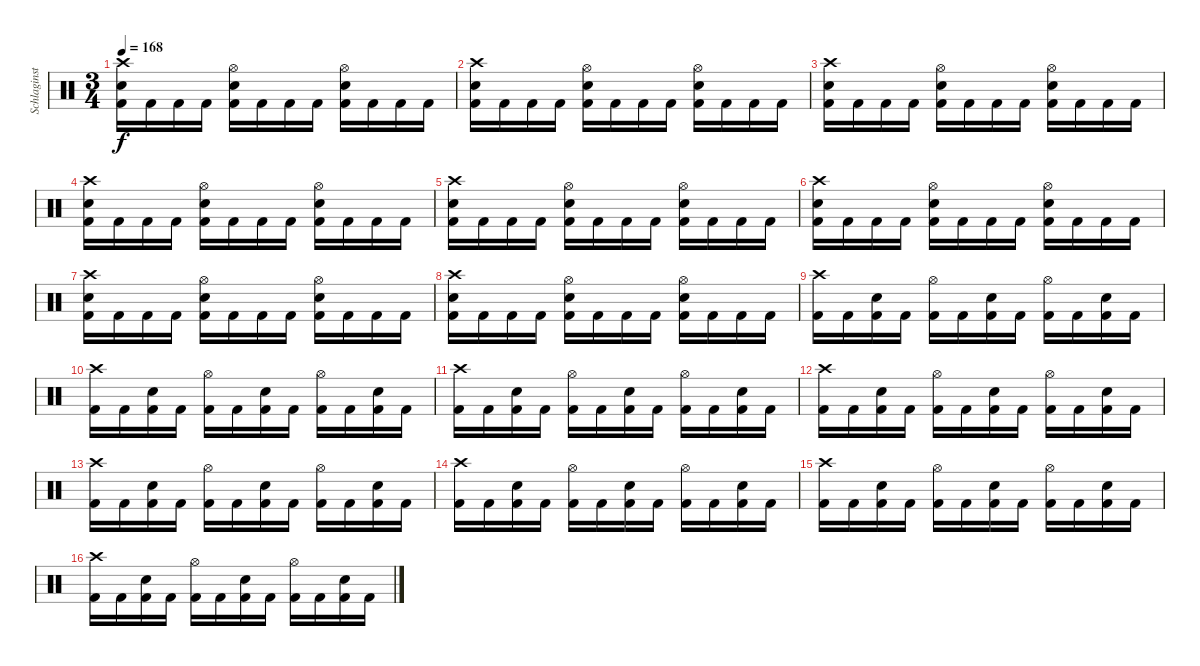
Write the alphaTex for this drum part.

\track ("Schlaginstrumente - Auswahl" "Schlaginst") {instrument percussion}
\staff {score}
\articulation defaults
\ts (3 4)
\tempo 168
\clef neutral
\ks c
("Crash high (hit)" "Snare (hit) 2" "Kick (hit) 2").16{dy f} "Kick (hit) 2".16 "Kick (hit) 2".16 "Kick (hit) 2".16 ("Hi-Hat (open)" "Snare (hit) 2" "Kick (hit) 2").16 "Kick (hit) 2".16 "Kick (hit) 2".16 "Kick (hit) 2".16 ("Hi-Hat (open)" "Snare (hit) 2" "Kick (hit) 2").16 "Kick (hit) 2".16 "Kick (hit) 2".16 "Kick (hit) 2".16 |
("Crash high (hit)" "Snare (hit) 2" "Kick (hit) 2").16 "Kick (hit) 2".16 "Kick (hit) 2".16 "Kick (hit) 2".16 ("Hi-Hat (open)" "Snare (hit) 2" "Kick (hit) 2").16 "Kick (hit) 2".16 "Kick (hit) 2".16 "Kick (hit) 2".16 ("Hi-Hat (open)" "Snare (hit) 2" "Kick (hit) 2").16 "Kick (hit) 2".16 "Kick (hit) 2".16 "Kick (hit) 2".16 |
("Crash high (hit)" "Snare (hit) 2" "Kick (hit) 2").16 "Kick (hit) 2".16 "Kick (hit) 2".16 "Kick (hit) 2".16 ("Hi-Hat (open)" "Snare (hit) 2" "Kick (hit) 2").16 "Kick (hit) 2".16 "Kick (hit) 2".16 "Kick (hit) 2".16 ("Hi-Hat (open)" "Snare (hit) 2" "Kick (hit) 2").16 "Kick (hit) 2".16 "Kick (hit) 2".16 "Kick (hit) 2".16 |
("Crash high (hit)" "Snare (hit) 2" "Kick (hit) 2").16 "Kick (hit) 2".16 "Kick (hit) 2".16 "Kick (hit) 2".16 ("Hi-Hat (open)" "Snare (hit) 2" "Kick (hit) 2").16 "Kick (hit) 2".16 "Kick (hit) 2".16 "Kick (hit) 2".16 ("Hi-Hat (open)" "Snare (hit) 2" "Kick (hit) 2").16 "Kick (hit) 2".16 "Kick (hit) 2".16 "Kick (hit) 2".16 |
("Crash high (hit)" "Snare (hit) 2" "Kick (hit) 2").16 "Kick (hit) 2".16 "Kick (hit) 2".16 "Kick (hit) 2".16 ("Hi-Hat (open)" "Snare (hit) 2" "Kick (hit) 2").16 "Kick (hit) 2".16 "Kick (hit) 2".16 "Kick (hit) 2".16 ("Hi-Hat (open)" "Snare (hit) 2" "Kick (hit) 2").16 "Kick (hit) 2".16 "Kick (hit) 2".16 "Kick (hit) 2".16 |
("Crash high (hit)" "Snare (hit) 2" "Kick (hit) 2").16 "Kick (hit) 2".16 "Kick (hit) 2".16 "Kick (hit) 2".16 ("Hi-Hat (open)" "Snare (hit) 2" "Kick (hit) 2").16 "Kick (hit) 2".16 "Kick (hit) 2".16 "Kick (hit) 2".16 ("Hi-Hat (open)" "Snare (hit) 2" "Kick (hit) 2").16 "Kick (hit) 2".16 "Kick (hit) 2".16 "Kick (hit) 2".16 |
("Crash high (hit)" "Snare (hit) 2" "Kick (hit) 2").16 "Kick (hit) 2".16 "Kick (hit) 2".16 "Kick (hit) 2".16 ("Hi-Hat (open)" "Snare (hit) 2" "Kick (hit) 2").16 "Kick (hit) 2".16 "Kick (hit) 2".16 "Kick (hit) 2".16 ("Hi-Hat (open)" "Snare (hit) 2" "Kick (hit) 2").16 "Kick (hit) 2".16 "Kick (hit) 2".16 "Kick (hit) 2".16 |
("Crash high (hit)" "Snare (hit) 2" "Kick (hit) 2").16 "Kick (hit) 2".16 "Kick (hit) 2".16 "Kick (hit) 2".16 ("Hi-Hat (open)" "Snare (hit) 2" "Kick (hit) 2").16 "Kick (hit) 2".16 "Kick (hit) 2".16 "Kick (hit) 2".16 ("Hi-Hat (open)" "Snare (hit) 2" "Kick (hit) 2").16 "Kick (hit) 2".16 "Kick (hit) 2".16 "Kick (hit) 2".16 |
("Crash high (hit)" "Kick (hit) 2").16 "Kick (hit) 2".16 ("Snare (hit) 2" "Kick (hit) 2").16 "Kick (hit) 2".16 ("Hi-Hat (open)" "Kick (hit) 2").16 "Kick (hit) 2".16 ("Snare (hit) 2" "Kick (hit) 2").16 "Kick (hit) 2".16 ("Hi-Hat (open)" "Kick (hit) 2").16 "Kick (hit) 2".16 ("Snare (hit) 2" "Kick (hit) 2").16 "Kick (hit) 2".16 |
("Crash high (hit)" "Kick (hit) 2").16 "Kick (hit) 2".16 ("Snare (hit) 2" "Kick (hit) 2").16 "Kick (hit) 2".16 ("Hi-Hat (open)" "Kick (hit) 2").16 "Kick (hit) 2".16 ("Snare (hit) 2" "Kick (hit) 2").16 "Kick (hit) 2".16 ("Hi-Hat (open)" "Kick (hit) 2").16 "Kick (hit) 2".16 ("Snare (hit) 2" "Kick (hit) 2").16 "Kick (hit) 2".16 |
("Crash high (hit)" "Kick (hit) 2").16 "Kick (hit) 2".16 ("Snare (hit) 2" "Kick (hit) 2").16 "Kick (hit) 2".16 ("Hi-Hat (open)" "Kick (hit) 2").16 "Kick (hit) 2".16 ("Snare (hit) 2" "Kick (hit) 2").16 "Kick (hit) 2".16 ("Hi-Hat (open)" "Kick (hit) 2").16 "Kick (hit) 2".16 ("Snare (hit) 2" "Kick (hit) 2").16 "Kick (hit) 2".16 |
("Crash high (hit)" "Kick (hit) 2").16 "Kick (hit) 2".16 ("Snare (hit) 2" "Kick (hit) 2").16 "Kick (hit) 2".16 ("Hi-Hat (open)" "Kick (hit) 2").16 "Kick (hit) 2".16 ("Snare (hit) 2" "Kick (hit) 2").16 "Kick (hit) 2".16 ("Hi-Hat (open)" "Kick (hit) 2").16 "Kick (hit) 2".16 ("Snare (hit) 2" "Kick (hit) 2").16 "Kick (hit) 2".16 |
("Crash high (hit)" "Kick (hit) 2").16 "Kick (hit) 2".16 ("Snare (hit) 2" "Kick (hit) 2").16 "Kick (hit) 2".16 ("Hi-Hat (open)" "Kick (hit) 2").16 "Kick (hit) 2".16 ("Snare (hit) 2" "Kick (hit) 2").16 "Kick (hit) 2".16 ("Hi-Hat (open)" "Kick (hit) 2").16 "Kick (hit) 2".16 ("Snare (hit) 2" "Kick (hit) 2").16 "Kick (hit) 2".16 |
("Crash high (hit)" "Kick (hit) 2").16 "Kick (hit) 2".16 ("Snare (hit) 2" "Kick (hit) 2").16 "Kick (hit) 2".16 ("Hi-Hat (open)" "Kick (hit) 2").16 "Kick (hit) 2".16 ("Snare (hit) 2" "Kick (hit) 2").16 "Kick (hit) 2".16 ("Hi-Hat (open)" "Kick (hit) 2").16 "Kick (hit) 2".16 ("Snare (hit) 2" "Kick (hit) 2").16 "Kick (hit) 2".16 |
("Crash high (hit)" "Kick (hit) 2").16 "Kick (hit) 2".16 ("Snare (hit) 2" "Kick (hit) 2").16 "Kick (hit) 2".16 ("Hi-Hat (open)" "Kick (hit) 2").16 "Kick (hit) 2".16 ("Snare (hit) 2" "Kick (hit) 2").16 "Kick (hit) 2".16 ("Hi-Hat (open)" "Kick (hit) 2").16 "Kick (hit) 2".16 ("Snare (hit) 2" "Kick (hit) 2").16 "Kick (hit) 2".16 |
("Crash high (hit)" "Kick (hit) 2").16 "Kick (hit) 2".16 ("Snare (hit) 2" "Kick (hit) 2").16 "Kick (hit) 2".16 ("Hi-Hat (open)" "Kick (hit) 2").16 "Kick (hit) 2".16 ("Snare (hit) 2" "Kick (hit) 2").16 "Kick (hit) 2".16 ("Hi-Hat (open)" "Kick (hit) 2").16 "Kick (hit) 2".16 ("Snare (hit) 2" "Kick (hit) 2").16 "Kick (hit) 2".16
